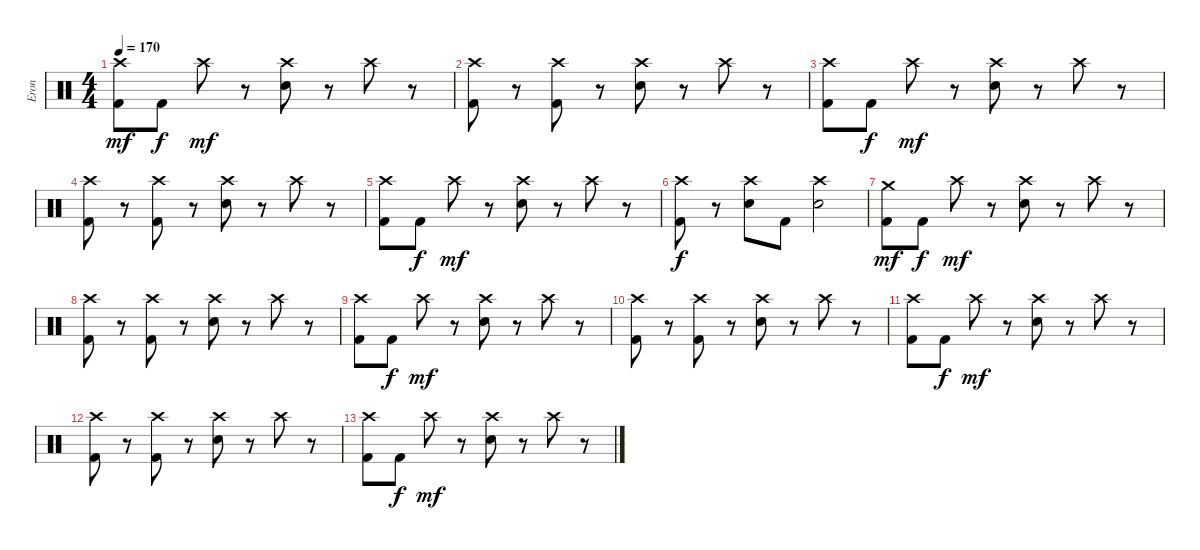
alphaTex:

\track ("Eron" "Eron") {instrument percussion}
\staff {score}
\articulation defaults
\ts (4 4)
\tempo 170
\clef neutral
\ks c
("Crash high (hit)" "Kick (hit) 2").8{dy mf} "Kick (hit) 2".8{dy f} "Crash high (hit)".8{dy mf} r.8 ("Crash high (hit)" "Snare (hit) 2").8 r.8 "Crash high (hit)".8 r.8 |
("Crash high (hit)" "Kick (hit) 2").8 r.8 ("Crash high (hit)" "Kick (hit) 2").8 r.8 ("Crash high (hit)" "Snare (hit) 2").8 r.8 "Crash high (hit)".8 r.8 |
("Crash high (hit)" "Kick (hit) 2").8 "Kick (hit) 2".8{dy f} "Crash high (hit)".8{dy mf} r.8 ("Crash high (hit)" "Snare (hit) 2").8 r.8 "Crash high (hit)".8 r.8 |
("Crash high (hit)" "Kick (hit) 2").8 r.8 ("Crash high (hit)" "Kick (hit) 2").8 r.8 ("Crash high (hit)" "Snare (hit) 2").8 r.8 "Crash high (hit)".8 r.8 |
("Crash high (hit)" "Kick (hit) 2").8 "Kick (hit) 2".8{dy f} "Crash high (hit)".8{dy mf} r.8 ("Crash high (hit)" "Snare (hit) 2").8 r.8 "Crash high (hit)".8 r.8 |
("Crash high (hit)" "Kick (hit) 2").8{dy f} r.8 ("Crash high (hit)" "Snare (hit) 2").8 "Kick (hit) 2".8 ("Crash high (hit)" "Snare (hit) 2").2 |
("Crash medium (hit)" "Kick (hit) 2").8{dy mf} "Kick (hit) 2".8{dy f} "Crash high (hit)".8{dy mf} r.8 ("Crash high (hit)" "Snare (hit) 2").8 r.8 "Crash high (hit)".8 r.8 |
("Crash high (hit)" "Kick (hit) 2").8 r.8 ("Crash high (hit)" "Kick (hit) 2").8 r.8 ("Crash high (hit)" "Snare (hit) 2").8 r.8 "Crash high (hit)".8 r.8 |
("Crash high (hit)" "Kick (hit) 2").8 "Kick (hit) 2".8{dy f} "Crash high (hit)".8{dy mf} r.8 ("Crash high (hit)" "Snare (hit) 2").8 r.8 "Crash high (hit)".8 r.8 |
("Crash high (hit)" "Kick (hit) 2").8 r.8 ("Crash high (hit)" "Kick (hit) 2").8 r.8 ("Crash high (hit)" "Snare (hit) 2").8 r.8 "Crash high (hit)".8 r.8 |
("Crash high (hit)" "Kick (hit) 2").8 "Kick (hit) 2".8{dy f} "Crash high (hit)".8{dy mf} r.8 ("Crash high (hit)" "Snare (hit) 2").8 r.8 "Crash high (hit)".8 r.8 |
("Crash high (hit)" "Kick (hit) 2").8 r.8 ("Crash high (hit)" "Kick (hit) 2").8 r.8 ("Crash high (hit)" "Snare (hit) 2").8 r.8 "Crash high (hit)".8 r.8 |
("Crash high (hit)" "Kick (hit) 2").8 "Kick (hit) 2".8{dy f} "Crash high (hit)".8{dy mf} r.8 ("Crash high (hit)" "Snare (hit) 2").8 r.8 "Crash high (hit)".8 r.8
